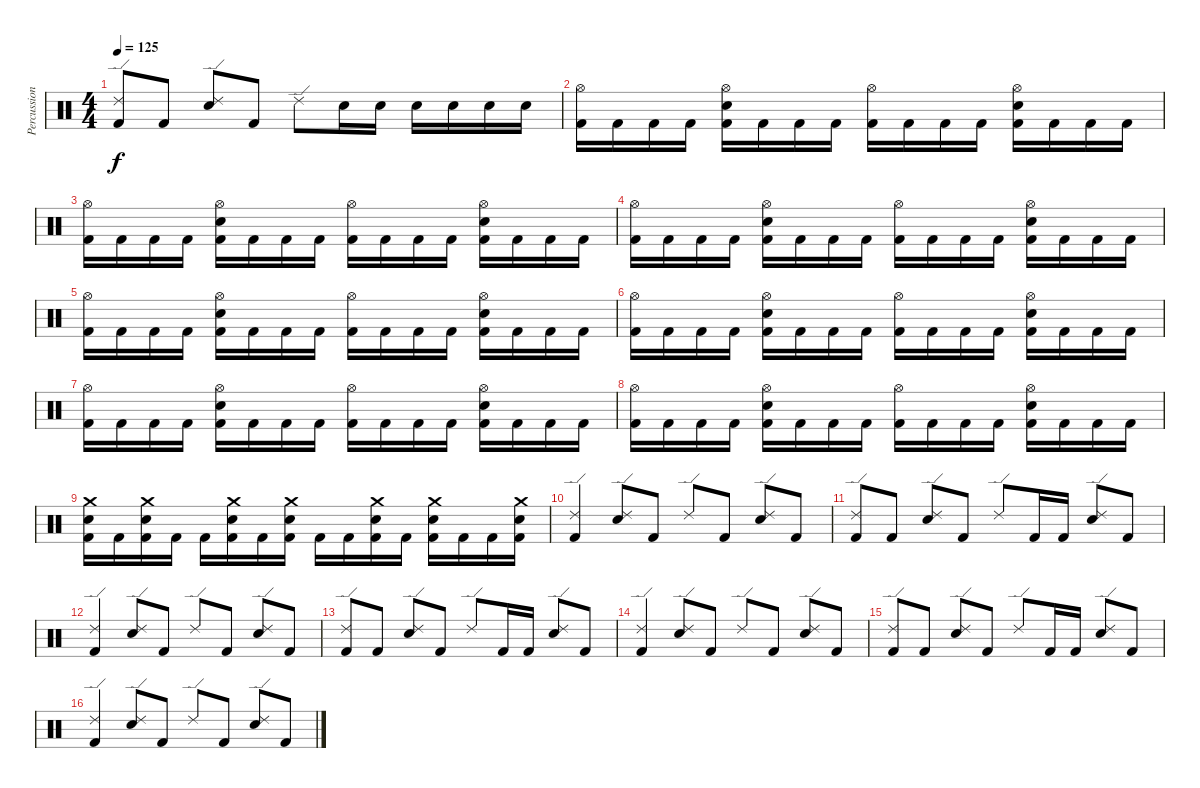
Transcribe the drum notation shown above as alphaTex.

\track ("Percussion" "Percussion") {instrument percussion}
\staff {score}
\articulation defaults
\ts (4 4)
\tempo 125
\clef neutral
\ks c
("Ride (edge) 2" "Kick (hit) 2").8{dy f} "Kick (hit) 2".8 ("Ride (edge) 2" "Electric Snare (hit)").8 "Kick (hit) 2".8 "Ride (edge) 2".8 "Electric Snare (hit)".16 "Electric Snare (hit)".16 "Electric Snare (hit)".16 "Electric Snare (hit)".16 "Electric Snare (hit)".16 "Electric Snare (hit)".16 |
("Hi-Hat (open)" "Kick (hit) 2").16 "Kick (hit) 2".16 "Kick (hit) 2".16 "Kick (hit) 2".16 ("Hi-Hat (open)" "Electric Snare (hit)" "Kick (hit) 2").16 "Kick (hit) 2".16 "Kick (hit) 2".16 "Kick (hit) 2".16 ("Hi-Hat (open)" "Kick (hit) 2").16 "Kick (hit) 2".16 "Kick (hit) 2".16 "Kick (hit) 2".16 ("Hi-Hat (open)" "Electric Snare (hit)" "Kick (hit) 2").16 "Kick (hit) 2".16 "Kick (hit) 2".16 "Kick (hit) 2".16 |
("Hi-Hat (open)" "Kick (hit) 2").16 "Kick (hit) 2".16 "Kick (hit) 2".16 "Kick (hit) 2".16 ("Hi-Hat (open)" "Electric Snare (hit)" "Kick (hit) 2").16 "Kick (hit) 2".16 "Kick (hit) 2".16 "Kick (hit) 2".16 ("Hi-Hat (open)" "Kick (hit) 2").16 "Kick (hit) 2".16 "Kick (hit) 2".16 "Kick (hit) 2".16 ("Hi-Hat (open)" "Electric Snare (hit)" "Kick (hit) 2").16 "Kick (hit) 2".16 "Kick (hit) 2".16 "Kick (hit) 2".16 |
("Hi-Hat (open)" "Kick (hit) 2").16 "Kick (hit) 2".16 "Kick (hit) 2".16 "Kick (hit) 2".16 ("Hi-Hat (open)" "Electric Snare (hit)" "Kick (hit) 2").16 "Kick (hit) 2".16 "Kick (hit) 2".16 "Kick (hit) 2".16 ("Hi-Hat (open)" "Kick (hit) 2").16 "Kick (hit) 2".16 "Kick (hit) 2".16 "Kick (hit) 2".16 ("Hi-Hat (open)" "Electric Snare (hit)" "Kick (hit) 2").16 "Kick (hit) 2".16 "Kick (hit) 2".16 "Kick (hit) 2".16 |
("Hi-Hat (open)" "Kick (hit) 2").16 "Kick (hit) 2".16 "Kick (hit) 2".16 "Kick (hit) 2".16 ("Hi-Hat (open)" "Electric Snare (hit)" "Kick (hit) 2").16 "Kick (hit) 2".16 "Kick (hit) 2".16 "Kick (hit) 2".16 ("Hi-Hat (open)" "Kick (hit) 2").16 "Kick (hit) 2".16 "Kick (hit) 2".16 "Kick (hit) 2".16 ("Hi-Hat (open)" "Electric Snare (hit)" "Kick (hit) 2").16 "Kick (hit) 2".16 "Kick (hit) 2".16 "Kick (hit) 2".16 |
("Hi-Hat (open)" "Kick (hit) 2").16 "Kick (hit) 2".16 "Kick (hit) 2".16 "Kick (hit) 2".16 ("Hi-Hat (open)" "Electric Snare (hit)" "Kick (hit) 2").16 "Kick (hit) 2".16 "Kick (hit) 2".16 "Kick (hit) 2".16 ("Hi-Hat (open)" "Kick (hit) 2").16 "Kick (hit) 2".16 "Kick (hit) 2".16 "Kick (hit) 2".16 ("Hi-Hat (open)" "Electric Snare (hit)" "Kick (hit) 2").16 "Kick (hit) 2".16 "Kick (hit) 2".16 "Kick (hit) 2".16 |
("Hi-Hat (open)" "Kick (hit) 2").16 "Kick (hit) 2".16 "Kick (hit) 2".16 "Kick (hit) 2".16 ("Hi-Hat (open)" "Electric Snare (hit)" "Kick (hit) 2").16 "Kick (hit) 2".16 "Kick (hit) 2".16 "Kick (hit) 2".16 ("Hi-Hat (open)" "Kick (hit) 2").16 "Kick (hit) 2".16 "Kick (hit) 2".16 "Kick (hit) 2".16 ("Hi-Hat (open)" "Electric Snare (hit)" "Kick (hit) 2").16 "Kick (hit) 2".16 "Kick (hit) 2".16 "Kick (hit) 2".16 |
("Hi-Hat (open)" "Kick (hit) 2").16 "Kick (hit) 2".16 "Kick (hit) 2".16 "Kick (hit) 2".16 ("Hi-Hat (open)" "Electric Snare (hit)" "Kick (hit) 2").16 "Kick (hit) 2".16 "Kick (hit) 2".16 "Kick (hit) 2".16 ("Hi-Hat (open)" "Kick (hit) 2").16 "Kick (hit) 2".16 "Kick (hit) 2".16 "Kick (hit) 2".16 ("Hi-Hat (open)" "Electric Snare (hit)" "Kick (hit) 2").16 "Kick (hit) 2".16 "Kick (hit) 2".16 "Kick (hit) 2".16 |
("Crash medium (hit)" "Electric Snare (hit)" "Kick (hit) 2").16 "Kick (hit) 2".16 ("Crash medium (hit)" "Electric Snare (hit)" "Kick (hit) 2").16 "Kick (hit) 2".16 "Kick (hit) 2".16 ("Crash medium (hit)" "Electric Snare (hit)" "Kick (hit) 2").16 "Kick (hit) 2".16 ("Crash medium (hit)" "Electric Snare (hit)" "Kick (hit) 2").16 "Kick (hit) 2".16 "Kick (hit) 2".16 ("Crash medium (hit)" "Electric Snare (hit)" "Kick (hit) 2").16 "Kick (hit) 2".16 ("Crash medium (hit)" "Electric Snare (hit)" "Kick (hit) 2").16 "Kick (hit) 2".16 "Kick (hit) 2".16 ("Crash medium (hit)" "Electric Snare (hit)" "Kick (hit) 2").16 |
("Ride (edge) 2" "Kick (hit) 2").4 ("Ride (edge) 2" "Electric Snare (hit)").8 "Kick (hit) 2".8 "Ride (edge) 2".8 "Kick (hit) 2".8 ("Ride (edge) 2" "Electric Snare (hit)").8 "Kick (hit) 2".8 |
("Ride (edge) 2" "Kick (hit) 2").8 "Kick (hit) 2".8 ("Ride (edge) 2" "Electric Snare (hit)").8 "Kick (hit) 2".8 "Ride (edge) 2".8 "Kick (hit) 2".16 "Kick (hit) 2".16 ("Ride (edge) 2" "Electric Snare (hit)").8 "Kick (hit) 2".8 |
("Ride (edge) 2" "Kick (hit) 2").4 ("Ride (edge) 2" "Electric Snare (hit)").8 "Kick (hit) 2".8 "Ride (edge) 2".8 "Kick (hit) 2".8 ("Ride (edge) 2" "Electric Snare (hit)").8 "Kick (hit) 2".8 |
("Ride (edge) 2" "Kick (hit) 2").8 "Kick (hit) 2".8 ("Ride (edge) 2" "Electric Snare (hit)").8 "Kick (hit) 2".8 "Ride (edge) 2".8 "Kick (hit) 2".16 "Kick (hit) 2".16 ("Ride (edge) 2" "Electric Snare (hit)").8 "Kick (hit) 2".8 |
("Ride (edge) 2" "Kick (hit) 2").4 ("Ride (edge) 2" "Electric Snare (hit)").8 "Kick (hit) 2".8 "Ride (edge) 2".8 "Kick (hit) 2".8 ("Ride (edge) 2" "Electric Snare (hit)").8 "Kick (hit) 2".8 |
("Ride (edge) 2" "Kick (hit) 2").8 "Kick (hit) 2".8 ("Ride (edge) 2" "Electric Snare (hit)").8 "Kick (hit) 2".8 "Ride (edge) 2".8 "Kick (hit) 2".16 "Kick (hit) 2".16 ("Ride (edge) 2" "Electric Snare (hit)").8 "Kick (hit) 2".8 |
("Ride (edge) 2" "Kick (hit) 2").4 ("Ride (edge) 2" "Electric Snare (hit)").8 "Kick (hit) 2".8 "Ride (edge) 2".8 "Kick (hit) 2".8 ("Ride (edge) 2" "Electric Snare (hit)").8 "Kick (hit) 2".8
